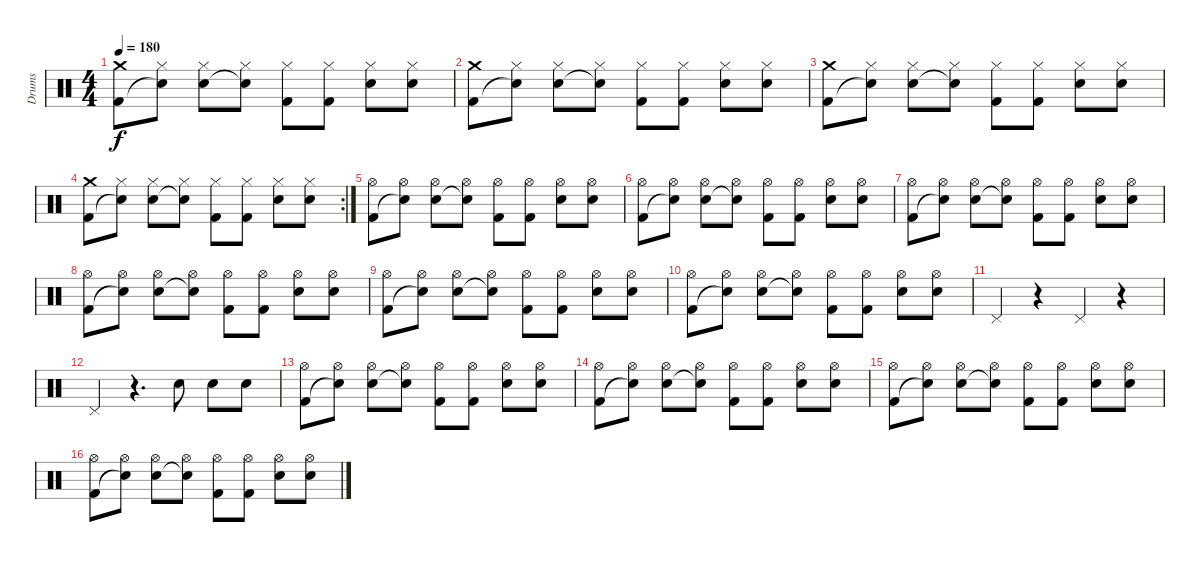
\track ("Drums" "Drums") {instrument percussion}
\staff {score}
\articulation defaults
\ts (4 4)
\tempo 180
\clef neutral
\ks c
("Crash medium (hit)" "Kick (hit) 2").8{dy f} ("Hi-Hat (closed)" "Snare (hit)"{t}).8 ("Hi-Hat (closed)" "Electric Snare (hit)").8 ("Hi-Hat (closed)" "Snare (hit)"{t}).8 ("Hi-Hat (closed)" "Kick (hit) 2").8 ("Hi-Hat (closed)" "Kick (hit) 2").8 ("Hi-Hat (closed)" "Electric Snare (hit)").8 ("Hi-Hat (closed)" "Electric Snare (hit)").8 |
("Crash medium (hit)" "Kick (hit) 2").8 ("Hi-Hat (closed)" "Snare (hit)"{t}).8 ("Hi-Hat (closed)" "Electric Snare (hit)").8 ("Hi-Hat (closed)" "Snare (hit)"{t}).8 ("Hi-Hat (closed)" "Kick (hit) 2").8 ("Hi-Hat (closed)" "Kick (hit) 2").8 ("Hi-Hat (closed)" "Electric Snare (hit)").8 ("Hi-Hat (closed)" "Electric Snare (hit)").8 |
("Crash medium (hit)" "Kick (hit) 2").8 ("Hi-Hat (closed)" "Snare (hit)"{t}).8 ("Hi-Hat (closed)" "Electric Snare (hit)").8 ("Hi-Hat (closed)" "Snare (hit)"{t}).8 ("Hi-Hat (closed)" "Kick (hit) 2").8 ("Hi-Hat (closed)" "Kick (hit) 2").8 ("Hi-Hat (closed)" "Electric Snare (hit)").8 ("Hi-Hat (closed)" "Electric Snare (hit)").8 |
\rc 2
("Crash medium (hit)" "Kick (hit) 2").8 ("Hi-Hat (closed)" "Snare (hit)"{t}).8 ("Hi-Hat (closed)" "Electric Snare (hit)").8 ("Hi-Hat (closed)" "Snare (hit)"{t}).8 ("Hi-Hat (closed)" "Kick (hit) 2").8 ("Hi-Hat (closed)" "Kick (hit) 2").8 ("Hi-Hat (closed)" "Electric Snare (hit)").8 ("Hi-Hat (closed)" "Electric Snare (hit)").8 |
("Hi-Hat (open)" "Kick (hit) 2").8 ("Hi-Hat (open)" "Snare (hit)"{t}).8 ("Hi-Hat (open)" "Electric Snare (hit)").8 ("Hi-Hat (open)" "Snare (hit)"{t}).8 ("Hi-Hat (open)" "Kick (hit) 2").8 ("Hi-Hat (open)" "Kick (hit) 2").8 ("Hi-Hat (open)" "Electric Snare (hit)").8 ("Hi-Hat (open)" "Electric Snare (hit)").8 |
("Hi-Hat (open)" "Kick (hit) 2").8 ("Hi-Hat (open)" "Snare (hit)"{t}).8 ("Hi-Hat (open)" "Electric Snare (hit)").8 ("Hi-Hat (open)" "Snare (hit)"{t}).8 ("Hi-Hat (open)" "Kick (hit) 2").8 ("Hi-Hat (open)" "Kick (hit) 2").8 ("Hi-Hat (open)" "Electric Snare (hit)").8 ("Hi-Hat (open)" "Electric Snare (hit)").8 |
("Hi-Hat (open)" "Kick (hit) 2").8 ("Hi-Hat (open)" "Snare (hit)"{t}).8 ("Hi-Hat (open)" "Electric Snare (hit)").8 ("Hi-Hat (open)" "Snare (hit)"{t}).8 ("Hi-Hat (open)" "Kick (hit) 2").8 ("Hi-Hat (open)" "Kick (hit) 2").8 ("Hi-Hat (open)" "Electric Snare (hit)").8 ("Hi-Hat (open)" "Electric Snare (hit)").8 |
("Hi-Hat (open)" "Kick (hit) 2").8 ("Hi-Hat (open)" "Snare (hit)"{t}).8 ("Hi-Hat (open)" "Electric Snare (hit)").8 ("Hi-Hat (open)" "Snare (hit)"{t}).8 ("Hi-Hat (open)" "Kick (hit) 2").8 ("Hi-Hat (open)" "Kick (hit) 2").8 ("Hi-Hat (open)" "Electric Snare (hit)").8 ("Hi-Hat (open)" "Electric Snare (hit)").8 |
("Hi-Hat (open)" "Kick (hit) 2").8 ("Hi-Hat (open)" "Snare (hit)"{t}).8 ("Hi-Hat (open)" "Electric Snare (hit)").8 ("Hi-Hat (open)" "Snare (hit)"{t}).8 ("Hi-Hat (open)" "Kick (hit) 2").8 ("Hi-Hat (open)" "Kick (hit) 2").8 ("Hi-Hat (open)" "Electric Snare (hit)").8 ("Hi-Hat (open)" "Electric Snare (hit)").8 |
("Hi-Hat (open)" "Kick (hit) 2").8 ("Hi-Hat (open)" "Snare (hit)"{t}).8 ("Hi-Hat (open)" "Electric Snare (hit)").8 ("Hi-Hat (open)" "Snare (hit)"{t}).8 ("Hi-Hat (open)" "Kick (hit) 2").8 ("Hi-Hat (open)" "Kick (hit) 2").8 ("Hi-Hat (open)" "Electric Snare (hit)").8 ("Hi-Hat (open)" "Electric Snare (hit)").8 |
"Pedal Hi-Hat (hit)".4 r.4 "Pedal Hi-Hat (hit)".4 r.4 |
"Pedal Hi-Hat (hit)".4 r.4{d} "Electric Snare (hit)".8 "Electric Snare (hit)".8 "Electric Snare (hit)".8 |
("Hi-Hat (open)" "Kick (hit) 2").8 ("Hi-Hat (open)" "Snare (hit)"{t}).8 ("Hi-Hat (open)" "Electric Snare (hit)").8 ("Hi-Hat (open)" "Snare (hit)"{t}).8 ("Hi-Hat (open)" "Kick (hit) 2").8 ("Hi-Hat (open)" "Kick (hit) 2").8 ("Hi-Hat (open)" "Electric Snare (hit)").8 ("Hi-Hat (open)" "Electric Snare (hit)").8 |
("Hi-Hat (open)" "Kick (hit) 2").8 ("Hi-Hat (open)" "Snare (hit)"{t}).8 ("Hi-Hat (open)" "Electric Snare (hit)").8 ("Hi-Hat (open)" "Snare (hit)"{t}).8 ("Hi-Hat (open)" "Kick (hit) 2").8 ("Hi-Hat (open)" "Kick (hit) 2").8 ("Hi-Hat (open)" "Electric Snare (hit)").8 ("Hi-Hat (open)" "Electric Snare (hit)").8 |
("Hi-Hat (open)" "Kick (hit) 2").8 ("Hi-Hat (open)" "Snare (hit)"{t}).8 ("Hi-Hat (open)" "Electric Snare (hit)").8 ("Hi-Hat (open)" "Snare (hit)"{t}).8 ("Hi-Hat (open)" "Kick (hit) 2").8 ("Hi-Hat (open)" "Kick (hit) 2").8 ("Hi-Hat (open)" "Electric Snare (hit)").8 ("Hi-Hat (open)" "Electric Snare (hit)").8 |
("Hi-Hat (open)" "Kick (hit) 2").8 ("Hi-Hat (open)" "Snare (hit)"{t}).8 ("Hi-Hat (open)" "Electric Snare (hit)").8 ("Hi-Hat (open)" "Snare (hit)"{t}).8 ("Hi-Hat (open)" "Kick (hit) 2").8 ("Hi-Hat (open)" "Kick (hit) 2").8 ("Hi-Hat (open)" "Electric Snare (hit)").8 ("Hi-Hat (open)" "Electric Snare (hit)").8
